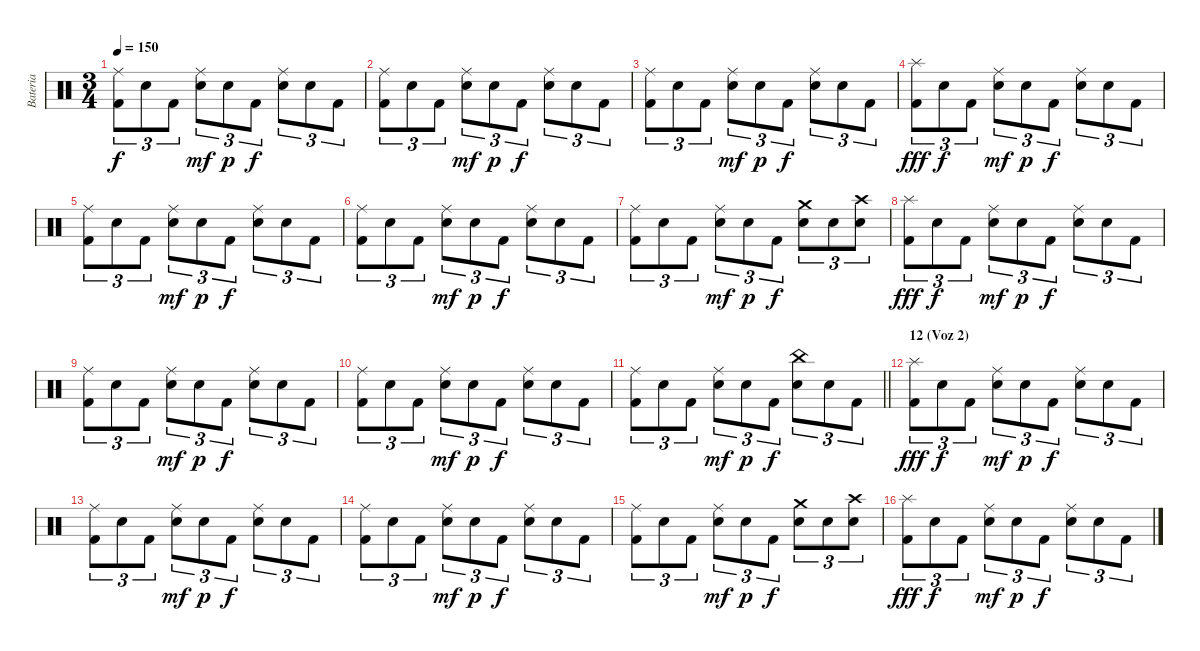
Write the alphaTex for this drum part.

\track ("Bateria" "Bateria") {instrument percussion}
\staff {score}
\articulation defaults
\ts (3 4)
\tempo 150
\clef neutral
\ks c
("Ride (middle)" "Kick (hit) 2").8{tu (3 2) dy f} "Snare (hit)".8{tu (3 2)} "Kick (hit) 2".8{tu (3 2)} ("Ride (middle)" "Electric Snare (hit)").8{tu (3 2) dy mf} "Electric Snare (hit)".8{tu (3 2) dy p} "Kick (hit) 2".8{tu (3 2) dy f} ("Ride (middle)" "Electric Snare (hit)").8{tu (3 2)} "Snare (hit)".8{tu (3 2)} "Kick (hit) 2".8{tu (3 2)} |
("Ride (middle)" "Kick (hit) 2").8{tu (3 2)} "Snare (hit)".8{tu (3 2)} "Kick (hit) 2".8{tu (3 2)} ("Ride (middle)" "Electric Snare (hit)").8{tu (3 2) dy mf} "Electric Snare (hit)".8{tu (3 2) dy p} "Kick (hit) 2".8{tu (3 2) dy f} ("Ride (middle)" "Electric Snare (hit)").8{tu (3 2)} "Snare (hit)".8{tu (3 2)} "Kick (hit) 2".8{tu (3 2)} |
("Ride (middle)" "Kick (hit) 2").8{tu (3 2)} "Snare (hit)".8{tu (3 2)} "Kick (hit) 2".8{tu (3 2)} ("Ride (middle)" "Electric Snare (hit)").8{tu (3 2) dy mf} "Electric Snare (hit)".8{tu (3 2) dy p} "Kick (hit) 2".8{tu (3 2) dy f} ("Ride (middle)" "Electric Snare (hit)").8{tu (3 2)} "Snare (hit)".8{tu (3 2)} "Kick (hit) 2".8{tu (3 2)} |
("Splash (hit)" "Kick (hit) 2").8{tu (3 2) dy fff} "Snare (hit)".8{tu (3 2) dy f} "Kick (hit) 2".8{tu (3 2)} ("Ride (middle)" "Electric Snare (hit)").8{tu (3 2) dy mf} "Electric Snare (hit)".8{tu (3 2) dy p} "Kick (hit) 2".8{tu (3 2) dy f} ("Ride (middle)" "Electric Snare (hit)").8{tu (3 2)} "Snare (hit)".8{tu (3 2)} "Kick (hit) 2".8{tu (3 2)} |
("Ride (middle)" "Kick (hit) 2").8{tu (3 2)} "Snare (hit)".8{tu (3 2)} "Kick (hit) 2".8{tu (3 2)} ("Ride (middle)" "Electric Snare (hit)").8{tu (3 2) dy mf} "Electric Snare (hit)".8{tu (3 2) dy p} "Kick (hit) 2".8{tu (3 2) dy f} ("Ride (middle)" "Electric Snare (hit)").8{tu (3 2)} "Snare (hit)".8{tu (3 2)} "Kick (hit) 2".8{tu (3 2)} |
("Ride (middle)" "Kick (hit) 2").8{tu (3 2)} "Snare (hit)".8{tu (3 2)} "Kick (hit) 2".8{tu (3 2)} ("Ride (middle)" "Electric Snare (hit)").8{tu (3 2) dy mf} "Electric Snare (hit)".8{tu (3 2) dy p} "Kick (hit) 2".8{tu (3 2) dy f} ("Ride (middle)" "Electric Snare (hit)").8{tu (3 2)} "Snare (hit)".8{tu (3 2)} "Kick (hit) 2".8{tu (3 2)} |
("Ride (middle)" "Kick (hit) 2").8{tu (3 2)} "Snare (hit)".8{tu (3 2)} "Kick (hit) 2".8{tu (3 2)} ("Ride (middle)" "Electric Snare (hit)").8{tu (3 2) dy mf} "Electric Snare (hit)".8{tu (3 2) dy p} "Kick (hit) 2".8{tu (3 2) dy f} ("Crash medium (hit)" "Electric Snare (hit)").8{tu (3 2)} "Snare (hit)".8{tu (3 2)} ("Crash high (hit)" "Electric Snare (hit)").8{tu (3 2)} |
("Splash (hit)" "Kick (hit) 2").8{tu (3 2) dy fff} "Snare (hit)".8{tu (3 2) dy f} "Kick (hit) 2".8{tu (3 2)} ("Ride (middle)" "Electric Snare (hit)").8{tu (3 2) dy mf} "Electric Snare (hit)".8{tu (3 2) dy p} "Kick (hit) 2".8{tu (3 2) dy f} ("Ride (middle)" "Electric Snare (hit)").8{tu (3 2)} "Snare (hit)".8{tu (3 2)} "Kick (hit) 2".8{tu (3 2)} |
("Ride (middle)" "Kick (hit) 2").8{tu (3 2)} "Snare (hit)".8{tu (3 2)} "Kick (hit) 2".8{tu (3 2)} ("Ride (middle)" "Electric Snare (hit)").8{tu (3 2) dy mf} "Electric Snare (hit)".8{tu (3 2) dy p} "Kick (hit) 2".8{tu (3 2) dy f} ("Ride (middle)" "Electric Snare (hit)").8{tu (3 2)} "Snare (hit)".8{tu (3 2)} "Kick (hit) 2".8{tu (3 2)} |
("Ride (middle)" "Kick (hit) 2").8{tu (3 2)} "Snare (hit)".8{tu (3 2)} "Kick (hit) 2".8{tu (3 2)} ("Ride (middle)" "Electric Snare (hit)").8{tu (3 2) dy mf} "Electric Snare (hit)".8{tu (3 2) dy p} "Kick (hit) 2".8{tu (3 2) dy f} ("Ride (middle)" "Electric Snare (hit)").8{tu (3 2)} "Snare (hit)".8{tu (3 2)} "Kick (hit) 2".8{tu (3 2)} |
\barLineRight lightlight
("Ride (middle)" "Kick (hit) 2").8{tu (3 2)} "Snare (hit)".8{tu (3 2)} "Kick (hit) 2".8{tu (3 2)} ("Ride (middle)" "Electric Snare (hit)").8{tu (3 2) dy mf} "Electric Snare (hit)".8{tu (3 2) dy p} "Kick (hit) 2".8{tu (3 2) dy f} ("China (hit)" "Electric Snare (hit)").8{tu (3 2)} "Snare (hit)".8{tu (3 2)} "Kick (hit) 2".8{tu (3 2)} |
\section ("" "12 (Voz 2)")
("Splash (hit)" "Kick (hit) 2").8{tu (3 2) dy fff} "Snare (hit)".8{tu (3 2) dy f} "Kick (hit) 2".8{tu (3 2)} ("Ride (middle)" "Electric Snare (hit)").8{tu (3 2) dy mf} "Electric Snare (hit)".8{tu (3 2) dy p} "Kick (hit) 2".8{tu (3 2) dy f} ("Ride (middle)" "Electric Snare (hit)").8{tu (3 2)} "Snare (hit)".8{tu (3 2)} "Kick (hit) 2".8{tu (3 2)} |
("Ride (middle)" "Kick (hit) 2").8{tu (3 2)} "Snare (hit)".8{tu (3 2)} "Kick (hit) 2".8{tu (3 2)} ("Ride (middle)" "Electric Snare (hit)").8{tu (3 2) dy mf} "Electric Snare (hit)".8{tu (3 2) dy p} "Kick (hit) 2".8{tu (3 2) dy f} ("Ride (middle)" "Electric Snare (hit)").8{tu (3 2)} "Snare (hit)".8{tu (3 2)} "Kick (hit) 2".8{tu (3 2)} |
("Ride (middle)" "Kick (hit) 2").8{tu (3 2)} "Snare (hit)".8{tu (3 2)} "Kick (hit) 2".8{tu (3 2)} ("Ride (middle)" "Electric Snare (hit)").8{tu (3 2) dy mf} "Electric Snare (hit)".8{tu (3 2) dy p} "Kick (hit) 2".8{tu (3 2) dy f} ("Ride (middle)" "Electric Snare (hit)").8{tu (3 2)} "Snare (hit)".8{tu (3 2)} "Kick (hit) 2".8{tu (3 2)} |
("Ride (middle)" "Kick (hit) 2").8{tu (3 2)} "Snare (hit)".8{tu (3 2)} "Kick (hit) 2".8{tu (3 2)} ("Ride (middle)" "Electric Snare (hit)").8{tu (3 2) dy mf} "Electric Snare (hit)".8{tu (3 2) dy p} "Kick (hit) 2".8{tu (3 2) dy f} ("Crash medium (hit)" "Electric Snare (hit)").8{tu (3 2)} "Snare (hit)".8{tu (3 2)} ("Crash high (hit)" "Electric Snare (hit)").8{tu (3 2)} |
("Splash (hit)" "Kick (hit) 2").8{tu (3 2) dy fff} "Snare (hit)".8{tu (3 2) dy f} "Kick (hit) 2".8{tu (3 2)} ("Ride (middle)" "Electric Snare (hit)").8{tu (3 2) dy mf} "Electric Snare (hit)".8{tu (3 2) dy p} "Kick (hit) 2".8{tu (3 2) dy f} ("Ride (middle)" "Electric Snare (hit)").8{tu (3 2)} "Snare (hit)".8{tu (3 2)} "Kick (hit) 2".8{tu (3 2)}
